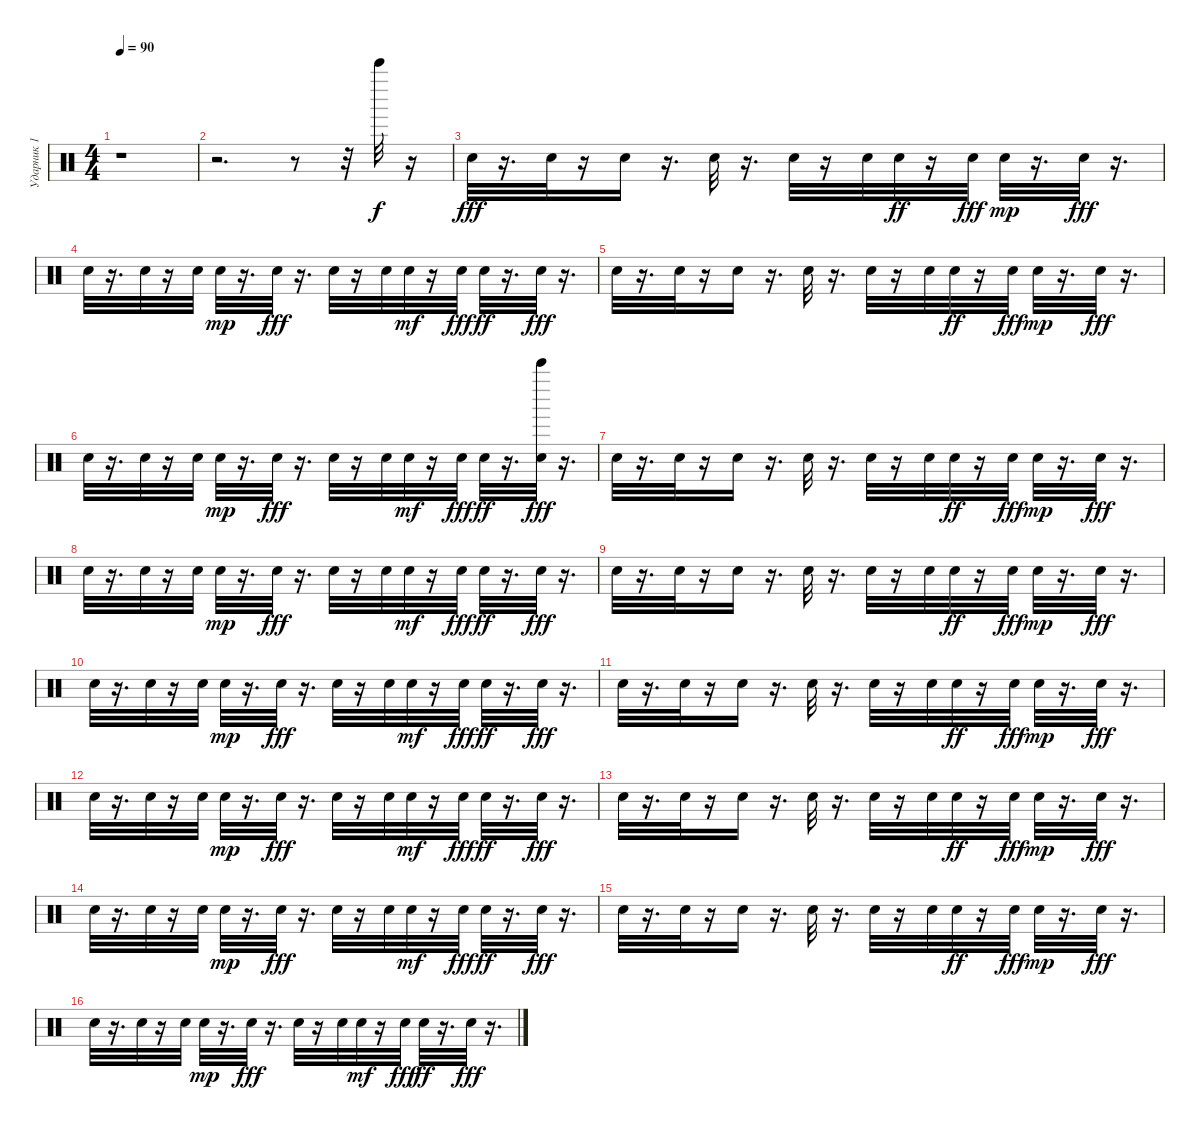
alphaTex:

\track ("Ударник 1" "Ударник 1") {instrument percussion}
\staff {score}
\articulation defaults
\ts (4 4)
\tempo 90
\clef neutral
\ks c
r.1{dy f} |
r.2{d} r.8 r.32 "Bell Tree (hit)".32 r.16 |
"Snare (hit)".32{dy fff} r.16{d} "Snare (hit)".32 r.16 "Snare (hit)".16 r.16{d} "Snare (hit)".32 r.16{d} "Snare (hit)".32 r.16 "Snare (hit)".32 "Snare (hit)".32{dy ff} r.16 "Snare (hit)".32{dy fff} "Snare (hit)".32{dy mp} r.16{d} "Snare (hit)".32{dy fff} r.16{d} |
"Snare (hit)".32 r.16{d} "Snare (hit)".32 r.16 "Snare (hit)".32 "Snare (hit)".32{dy mp} r.16{d} "Snare (hit)".32{dy fff} r.16{d} "Snare (hit)".32 r.16 "Snare (hit)".32 "Snare (hit)".32{dy mf} r.16 "Snare (hit)".32{dy fff} "Snare (hit)".32{dy ff} r.16{d} "Snare (hit)".32{dy fff} r.16{d} |
"Snare (hit)".32 r.16{d} "Snare (hit)".32 r.16 "Snare (hit)".16 r.16{d} "Snare (hit)".32 r.16{d} "Snare (hit)".32 r.16 "Snare (hit)".32 "Snare (hit)".32{dy ff} r.16 "Snare (hit)".32{dy fff} "Snare (hit)".32{dy mp} r.16{d} "Snare (hit)".32{dy fff} r.16{d} |
"Snare (hit)".32 r.16{d} "Snare (hit)".32 r.16 "Snare (hit)".32 "Snare (hit)".32{dy mp} r.16{d} "Snare (hit)".32{dy fff} r.16{d} "Snare (hit)".32 r.16 "Snare (hit)".32 "Snare (hit)".32{dy mf} r.16 "Snare (hit)".32{dy fff} "Snare (hit)".32{dy ff} r.16{d} ("Snare (hit)" "Bell Tree (hit)").32{dy fff} r.16{d} |
"Snare (hit)".32 r.16{d} "Snare (hit)".32 r.16 "Snare (hit)".16 r.16{d} "Snare (hit)".32 r.16{d} "Snare (hit)".32 r.16 "Snare (hit)".32 "Snare (hit)".32{dy ff} r.16 "Snare (hit)".32{dy fff} "Snare (hit)".32{dy mp} r.16{d} "Snare (hit)".32{dy fff} r.16{d} |
"Snare (hit)".32 r.16{d} "Snare (hit)".32 r.16 "Snare (hit)".32 "Snare (hit)".32{dy mp} r.16{d} "Snare (hit)".32{dy fff} r.16{d} "Snare (hit)".32 r.16 "Snare (hit)".32 "Snare (hit)".32{dy mf} r.16 "Snare (hit)".32{dy fff} "Snare (hit)".32{dy ff} r.16{d} "Snare (hit)".32{dy fff} r.16{d} |
"Snare (hit)".32 r.16{d} "Snare (hit)".32 r.16 "Snare (hit)".16 r.16{d} "Snare (hit)".32 r.16{d} "Snare (hit)".32 r.16 "Snare (hit)".32 "Snare (hit)".32{dy ff} r.16 "Snare (hit)".32{dy fff} "Snare (hit)".32{dy mp} r.16{d} "Snare (hit)".32{dy fff} r.16{d} |
"Snare (hit)".32 r.16{d} "Snare (hit)".32 r.16 "Snare (hit)".32 "Snare (hit)".32{dy mp} r.16{d} "Snare (hit)".32{dy fff} r.16{d} "Snare (hit)".32 r.16 "Snare (hit)".32 "Snare (hit)".32{dy mf} r.16 "Snare (hit)".32{dy fff} "Snare (hit)".32{dy ff} r.16{d} "Snare (hit)".32{dy fff} r.16{d} |
"Snare (hit)".32 r.16{d} "Snare (hit)".32 r.16 "Snare (hit)".16 r.16{d} "Snare (hit)".32 r.16{d} "Snare (hit)".32 r.16 "Snare (hit)".32 "Snare (hit)".32{dy ff} r.16 "Snare (hit)".32{dy fff} "Snare (hit)".32{dy mp} r.16{d} "Snare (hit)".32{dy fff} r.16{d} |
"Snare (hit)".32 r.16{d} "Snare (hit)".32 r.16 "Snare (hit)".32 "Snare (hit)".32{dy mp} r.16{d} "Snare (hit)".32{dy fff} r.16{d} "Snare (hit)".32 r.16 "Snare (hit)".32 "Snare (hit)".32{dy mf} r.16 "Snare (hit)".32{dy fff} "Snare (hit)".32{dy ff} r.16{d} "Snare (hit)".32{dy fff} r.16{d} |
"Snare (hit)".32 r.16{d} "Snare (hit)".32 r.16 "Snare (hit)".16 r.16{d} "Snare (hit)".32 r.16{d} "Snare (hit)".32 r.16 "Snare (hit)".32 "Snare (hit)".32{dy ff} r.16 "Snare (hit)".32{dy fff} "Snare (hit)".32{dy mp} r.16{d} "Snare (hit)".32{dy fff} r.16{d} |
"Snare (hit)".32 r.16{d} "Snare (hit)".32 r.16 "Snare (hit)".32 "Snare (hit)".32{dy mp} r.16{d} "Snare (hit)".32{dy fff} r.16{d} "Snare (hit)".32 r.16 "Snare (hit)".32 "Snare (hit)".32{dy mf} r.16 "Snare (hit)".32{dy fff} "Snare (hit)".32{dy ff} r.16{d} "Snare (hit)".32{dy fff} r.16{d} |
"Snare (hit)".32 r.16{d} "Snare (hit)".32 r.16 "Snare (hit)".16 r.16{d} "Snare (hit)".32 r.16{d} "Snare (hit)".32 r.16 "Snare (hit)".32 "Snare (hit)".32{dy ff} r.16 "Snare (hit)".32{dy fff} "Snare (hit)".32{dy mp} r.16{d} "Snare (hit)".32{dy fff} r.16{d} |
"Snare (hit)".32 r.16{d} "Snare (hit)".32 r.16 "Snare (hit)".32 "Snare (hit)".32{dy mp} r.16{d} "Snare (hit)".32{dy fff} r.16{d} "Snare (hit)".32 r.16 "Snare (hit)".32 "Snare (hit)".32{dy mf} r.16 "Snare (hit)".32{dy fff} "Snare (hit)".32{dy ff} r.16{d} "Snare (hit)".32{dy fff} r.16{d}
